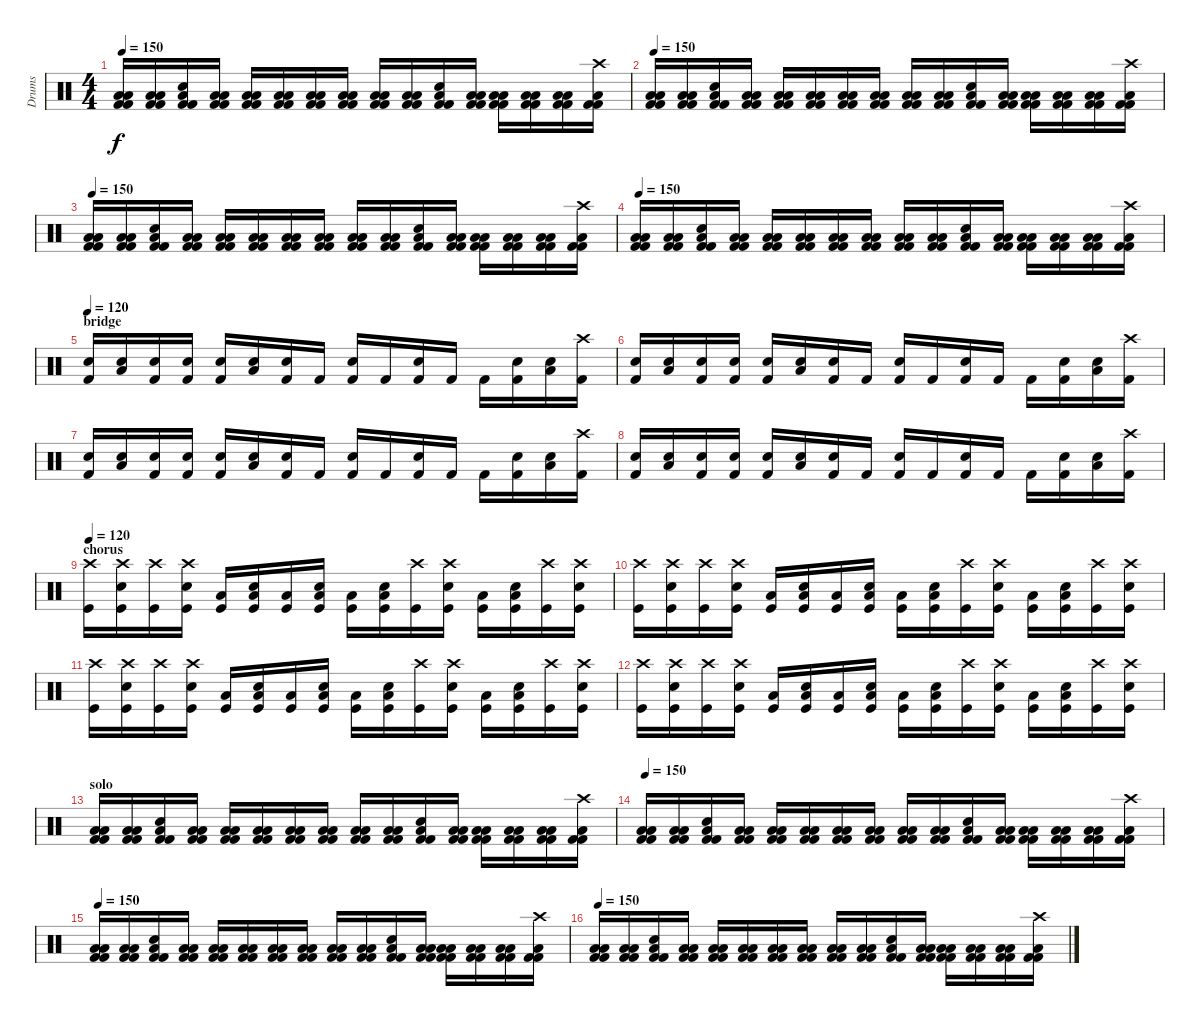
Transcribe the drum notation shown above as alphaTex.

\track ("Drums" "Drums") {instrument percussion}
\staff {score}
\articulation defaults
\ts (4 4)
\tempo 150
\clef neutral
\ks c
("Kick (hit) 2" "Kick (hit) 2" "Low Tom (hit)" "Low Tom (hit)").16{dy f} ("Kick (hit) 2" "Kick (hit) 2" "Low Tom (hit)" "Low Tom (hit)").16 ("Kick (hit) 2" "Kick (hit) 2" "Snare (hit) 2" "Low Tom (hit)").16 ("Kick (hit) 2" "Kick (hit) 2" "Low Tom (hit)" "Low Tom (hit)").16 ("Kick (hit) 2" "Kick (hit) 2" "Low Tom (hit)" "Low Tom (hit)").16 ("Kick (hit) 2" "Kick (hit) 2" "Low Tom (hit)" "Low Tom (hit)").16 ("Kick (hit) 2" "Kick (hit) 2" "Low Tom (hit)" "Low Tom (hit)").16 ("Kick (hit) 2" "Kick (hit) 2" "Low Tom (hit)" "Low Tom (hit)").16 ("Kick (hit) 2" "Kick (hit) 2" "Low Tom (hit)" "Low Tom (hit)").16 ("Kick (hit) 2" "Kick (hit) 2" "Low Tom (hit)" "Low Tom (hit)").16 ("Kick (hit) 2" "Kick (hit) 2" "Snare (hit) 2" "Low Tom (hit)").16 ("Kick (hit) 2" "Kick (hit) 2" "Low Tom (hit)" "Low Tom (hit)").16 ("Kick (hit) 2" "Kick (hit) 2" "Low Tom (hit)" "Low Tom (hit)").16 ("Kick (hit) 2" "Kick (hit) 2" "Low Tom (hit)" "Low Tom (hit)").16 ("Kick (hit) 2" "Kick (hit) 2" "Low Tom (hit)" "Low Tom (hit)").16 ("Kick (hit) 2" "Kick (hit) 2" "Crash high (hit)" "Low Tom (hit)").16 |
\tempo 150
("Kick (hit) 2" "Kick (hit) 2" "Low Tom (hit)" "Low Tom (hit)").16 ("Kick (hit) 2" "Kick (hit) 2" "Low Tom (hit)" "Low Tom (hit)").16 ("Kick (hit) 2" "Kick (hit) 2" "Snare (hit) 2" "Low Tom (hit)").16 ("Kick (hit) 2" "Kick (hit) 2" "Low Tom (hit)" "Low Tom (hit)").16 ("Kick (hit) 2" "Kick (hit) 2" "Low Tom (hit)" "Low Tom (hit)").16 ("Kick (hit) 2" "Kick (hit) 2" "Low Tom (hit)" "Low Tom (hit)").16 ("Kick (hit) 2" "Kick (hit) 2" "Low Tom (hit)" "Low Tom (hit)").16 ("Kick (hit) 2" "Kick (hit) 2" "Low Tom (hit)" "Low Tom (hit)").16 ("Kick (hit) 2" "Kick (hit) 2" "Low Tom (hit)" "Low Tom (hit)").16 ("Kick (hit) 2" "Kick (hit) 2" "Low Tom (hit)" "Low Tom (hit)").16 ("Kick (hit) 2" "Kick (hit) 2" "Snare (hit) 2" "Low Tom (hit)").16 ("Kick (hit) 2" "Kick (hit) 2" "Low Tom (hit)" "Low Tom (hit)").16 ("Kick (hit) 2" "Kick (hit) 2" "Low Tom (hit)" "Low Tom (hit)").16 ("Kick (hit) 2" "Kick (hit) 2" "Low Tom (hit)" "Low Tom (hit)").16 ("Kick (hit) 2" "Kick (hit) 2" "Low Tom (hit)" "Low Tom (hit)").16 ("Kick (hit) 2" "Kick (hit) 2" "Crash high (hit)" "Low Tom (hit)").16 |
\tempo 150
("Kick (hit) 2" "Kick (hit) 2" "Low Tom (hit)" "Low Tom (hit)").16 ("Kick (hit) 2" "Kick (hit) 2" "Low Tom (hit)" "Low Tom (hit)").16 ("Kick (hit) 2" "Kick (hit) 2" "Snare (hit) 2" "Low Tom (hit)").16 ("Kick (hit) 2" "Kick (hit) 2" "Low Tom (hit)" "Low Tom (hit)").16 ("Kick (hit) 2" "Kick (hit) 2" "Low Tom (hit)" "Low Tom (hit)").16 ("Kick (hit) 2" "Kick (hit) 2" "Low Tom (hit)" "Low Tom (hit)").16 ("Kick (hit) 2" "Kick (hit) 2" "Low Tom (hit)" "Low Tom (hit)").16 ("Kick (hit) 2" "Kick (hit) 2" "Low Tom (hit)" "Low Tom (hit)").16 ("Kick (hit) 2" "Kick (hit) 2" "Low Tom (hit)" "Low Tom (hit)").16 ("Kick (hit) 2" "Kick (hit) 2" "Low Tom (hit)" "Low Tom (hit)").16 ("Kick (hit) 2" "Kick (hit) 2" "Snare (hit) 2" "Low Tom (hit)").16 ("Kick (hit) 2" "Kick (hit) 2" "Low Tom (hit)" "Low Tom (hit)").16 ("Kick (hit) 2" "Kick (hit) 2" "Low Tom (hit)" "Low Tom (hit)").16 ("Kick (hit) 2" "Kick (hit) 2" "Low Tom (hit)" "Low Tom (hit)").16 ("Kick (hit) 2" "Kick (hit) 2" "Low Tom (hit)" "Low Tom (hit)").16 ("Kick (hit) 2" "Kick (hit) 2" "Crash high (hit)" "Low Tom (hit)").16 |
\tempo 150
("Kick (hit) 2" "Kick (hit) 2" "Low Tom (hit)" "Low Tom (hit)").16 ("Kick (hit) 2" "Kick (hit) 2" "Low Tom (hit)" "Low Tom (hit)").16 ("Kick (hit) 2" "Kick (hit) 2" "Snare (hit) 2" "Low Tom (hit)").16 ("Kick (hit) 2" "Kick (hit) 2" "Low Tom (hit)" "Low Tom (hit)").16 ("Kick (hit) 2" "Kick (hit) 2" "Low Tom (hit)" "Low Tom (hit)").16 ("Kick (hit) 2" "Kick (hit) 2" "Low Tom (hit)" "Low Tom (hit)").16 ("Kick (hit) 2" "Kick (hit) 2" "Low Tom (hit)" "Low Tom (hit)").16 ("Kick (hit) 2" "Kick (hit) 2" "Low Tom (hit)" "Low Tom (hit)").16 ("Kick (hit) 2" "Kick (hit) 2" "Low Tom (hit)" "Low Tom (hit)").16 ("Kick (hit) 2" "Kick (hit) 2" "Low Tom (hit)" "Low Tom (hit)").16 ("Kick (hit) 2" "Kick (hit) 2" "Snare (hit) 2" "Low Tom (hit)").16 ("Kick (hit) 2" "Kick (hit) 2" "Low Tom (hit)" "Low Tom (hit)").16 ("Kick (hit) 2" "Kick (hit) 2" "Low Tom (hit)" "Low Tom (hit)").16 ("Kick (hit) 2" "Kick (hit) 2" "Low Tom (hit)" "Low Tom (hit)").16 ("Kick (hit) 2" "Kick (hit) 2" "Low Tom (hit)" "Low Tom (hit)").16 ("Kick (hit) 2" "Kick (hit) 2" "Crash high (hit)" "Low Tom (hit)").16 |
\section ("" "bridge")
\tempo 120
("Snare (hit) 2" "Kick (hit) 2").16 ("Snare (hit) 2" "Low Tom (hit)").16 ("Snare (hit) 2" "Kick (hit) 2").16 ("Snare (hit) 2" "Kick (hit) 2").16 ("Snare (hit) 2" "Kick (hit) 2").16 ("Snare (hit) 2" "Low Tom (hit)").16 ("Snare (hit) 2" "Kick (hit) 2").16 "Kick (hit) 2".16 ("Kick (hit) 2" "Snare (hit) 2").16 "Kick (hit) 2".16 ("Kick (hit) 2" "Snare (hit) 2").16 "Kick (hit) 2".16 "Kick (hit) 2".16 ("Kick (hit) 2" "Snare (hit) 2").16 ("Snare (hit) 2" "Low Tom (hit)").16 ("Kick (hit) 2" "Crash high (hit)").16 |
("Snare (hit) 2" "Kick (hit) 2").16 ("Snare (hit) 2" "Low Tom (hit)").16 ("Snare (hit) 2" "Kick (hit) 2").16 ("Snare (hit) 2" "Kick (hit) 2").16 ("Snare (hit) 2" "Kick (hit) 2").16 ("Snare (hit) 2" "Low Tom (hit)").16 ("Snare (hit) 2" "Kick (hit) 2").16 "Kick (hit) 2".16 ("Kick (hit) 2" "Snare (hit) 2").16 "Kick (hit) 2".16 ("Kick (hit) 2" "Snare (hit) 2").16 "Kick (hit) 2".16 "Kick (hit) 2".16 ("Kick (hit) 2" "Snare (hit) 2").16 ("Snare (hit) 2" "Low Tom (hit)").16 ("Kick (hit) 2" "Crash high (hit)").16 |
("Snare (hit) 2" "Kick (hit) 2").16 ("Snare (hit) 2" "Low Tom (hit)").16 ("Snare (hit) 2" "Kick (hit) 2").16 ("Snare (hit) 2" "Kick (hit) 2").16 ("Snare (hit) 2" "Kick (hit) 2").16 ("Snare (hit) 2" "Low Tom (hit)").16 ("Snare (hit) 2" "Kick (hit) 2").16 "Kick (hit) 2".16 ("Kick (hit) 2" "Snare (hit) 2").16 "Kick (hit) 2".16 ("Kick (hit) 2" "Snare (hit) 2").16 "Kick (hit) 2".16 "Kick (hit) 2".16 ("Kick (hit) 2" "Snare (hit) 2").16 ("Snare (hit) 2" "Low Tom (hit)").16 ("Kick (hit) 2" "Crash high (hit)").16 |
("Snare (hit) 2" "Kick (hit) 2").16 ("Snare (hit) 2" "Low Tom (hit)").16 ("Snare (hit) 2" "Kick (hit) 2").16 ("Snare (hit) 2" "Kick (hit) 2").16 ("Snare (hit) 2" "Kick (hit) 2").16 ("Snare (hit) 2" "Low Tom (hit)").16 ("Snare (hit) 2" "Kick (hit) 2").16 "Kick (hit) 2".16 ("Kick (hit) 2" "Snare (hit) 2").16 "Kick (hit) 2".16 ("Kick (hit) 2" "Snare (hit) 2").16 "Kick (hit) 2".16 "Kick (hit) 2".16 ("Kick (hit) 2" "Snare (hit) 2").16 ("Snare (hit) 2" "Low Tom (hit)").16 ("Kick (hit) 2" "Crash high (hit)").16 |
\section ("" "chorus")
\tempo 120
("Kick (hit)" "Crash high (hit)").16 ("Kick (hit)" "Snare (hit) 2" "Crash high (hit)").16 ("Kick (hit)" "Crash high (hit)").16 ("Kick (hit)" "Snare (hit) 2" "Crash high (hit)").16 ("Kick (hit)" "Low Tom (hit)").16 ("Kick (hit)" "Snare (hit) 2" "Low Tom (hit)").16 ("Kick (hit)" "Low Tom (hit)").16 ("Kick (hit)" "Snare (hit) 2" "Low Tom (hit)").16 ("Kick (hit)" "Low Tom (hit)").16 ("Kick (hit)" "Snare (hit) 2" "Low Tom (hit)").16 ("Kick (hit)" "Crash high (hit)").16 ("Kick (hit)" "Snare (hit) 2" "Crash high (hit)").16 ("Kick (hit)" "Low Tom (hit)").16 ("Kick (hit)" "Snare (hit) 2" "Low Tom (hit)").16 ("Kick (hit)" "Crash high (hit)").16 ("Kick (hit)" "Snare (hit) 2" "Crash high (hit)").16 |
("Kick (hit)" "Crash high (hit)").16 ("Kick (hit)" "Snare (hit) 2" "Crash high (hit)").16 ("Kick (hit)" "Crash high (hit)").16 ("Kick (hit)" "Snare (hit) 2" "Crash high (hit)").16 ("Kick (hit)" "Low Tom (hit)").16 ("Kick (hit)" "Snare (hit) 2" "Low Tom (hit)").16 ("Kick (hit)" "Low Tom (hit)").16 ("Kick (hit)" "Snare (hit) 2" "Low Tom (hit)").16 ("Kick (hit)" "Low Tom (hit)").16 ("Kick (hit)" "Snare (hit) 2" "Low Tom (hit)").16 ("Kick (hit)" "Crash high (hit)").16 ("Kick (hit)" "Snare (hit) 2" "Crash high (hit)").16 ("Kick (hit)" "Low Tom (hit)").16 ("Kick (hit)" "Snare (hit) 2" "Low Tom (hit)").16 ("Kick (hit)" "Crash high (hit)").16 ("Kick (hit)" "Snare (hit) 2" "Crash high (hit)").16 |
("Kick (hit)" "Crash high (hit)").16 ("Kick (hit)" "Snare (hit) 2" "Crash high (hit)").16 ("Kick (hit)" "Crash high (hit)").16 ("Kick (hit)" "Snare (hit) 2" "Crash high (hit)").16 ("Kick (hit)" "Low Tom (hit)").16 ("Kick (hit)" "Snare (hit) 2" "Low Tom (hit)").16 ("Kick (hit)" "Low Tom (hit)").16 ("Kick (hit)" "Snare (hit) 2" "Low Tom (hit)").16 ("Kick (hit)" "Low Tom (hit)").16 ("Kick (hit)" "Snare (hit) 2" "Low Tom (hit)").16 ("Kick (hit)" "Crash high (hit)").16 ("Kick (hit)" "Snare (hit) 2" "Crash high (hit)").16 ("Kick (hit)" "Low Tom (hit)").16 ("Kick (hit)" "Snare (hit) 2" "Low Tom (hit)").16 ("Kick (hit)" "Crash high (hit)").16 ("Kick (hit)" "Snare (hit) 2" "Crash high (hit)").16 |
("Kick (hit)" "Crash high (hit)").16 ("Kick (hit)" "Snare (hit) 2" "Crash high (hit)").16 ("Kick (hit)" "Crash high (hit)").16 ("Kick (hit)" "Snare (hit) 2" "Crash high (hit)").16 ("Kick (hit)" "Low Tom (hit)").16 ("Kick (hit)" "Snare (hit) 2" "Low Tom (hit)").16 ("Kick (hit)" "Low Tom (hit)").16 ("Kick (hit)" "Snare (hit) 2" "Low Tom (hit)").16 ("Kick (hit)" "Low Tom (hit)").16 ("Kick (hit)" "Snare (hit) 2" "Low Tom (hit)").16 ("Kick (hit)" "Crash high (hit)").16 ("Kick (hit)" "Snare (hit) 2" "Crash high (hit)").16 ("Kick (hit)" "Low Tom (hit)").16 ("Kick (hit)" "Snare (hit) 2" "Low Tom (hit)").16 ("Kick (hit)" "Crash high (hit)").16 ("Kick (hit)" "Snare (hit) 2" "Crash high (hit)").16 |
\section ("" "solo")
("Kick (hit) 2" "Kick (hit) 2" "Low Tom (hit)" "Low Tom (hit)").16 ("Kick (hit) 2" "Kick (hit) 2" "Low Tom (hit)" "Low Tom (hit)").16 ("Kick (hit) 2" "Kick (hit) 2" "Snare (hit) 2" "Low Tom (hit)").16 ("Kick (hit) 2" "Kick (hit) 2" "Low Tom (hit)" "Low Tom (hit)").16 ("Kick (hit) 2" "Kick (hit) 2" "Low Tom (hit)" "Low Tom (hit)").16 ("Kick (hit) 2" "Kick (hit) 2" "Low Tom (hit)" "Low Tom (hit)").16 ("Kick (hit) 2" "Kick (hit) 2" "Low Tom (hit)" "Low Tom (hit)").16 ("Kick (hit) 2" "Kick (hit) 2" "Low Tom (hit)" "Low Tom (hit)").16 ("Kick (hit) 2" "Kick (hit) 2" "Low Tom (hit)" "Low Tom (hit)").16 ("Kick (hit) 2" "Kick (hit) 2" "Low Tom (hit)" "Low Tom (hit)").16 ("Kick (hit) 2" "Kick (hit) 2" "Snare (hit) 2" "Low Tom (hit)").16 ("Kick (hit) 2" "Kick (hit) 2" "Low Tom (hit)" "Low Tom (hit)").16 ("Kick (hit) 2" "Kick (hit) 2" "Low Tom (hit)" "Low Tom (hit)").16 ("Kick (hit) 2" "Kick (hit) 2" "Low Tom (hit)" "Low Tom (hit)").16 ("Kick (hit) 2" "Kick (hit) 2" "Low Tom (hit)" "Low Tom (hit)").16 ("Kick (hit) 2" "Kick (hit) 2" "Crash high (hit)" "Low Tom (hit)").16 |
\tempo 150
("Kick (hit) 2" "Kick (hit) 2" "Low Tom (hit)" "Low Tom (hit)").16 ("Kick (hit) 2" "Kick (hit) 2" "Low Tom (hit)" "Low Tom (hit)").16 ("Kick (hit) 2" "Kick (hit) 2" "Snare (hit) 2" "Low Tom (hit)").16 ("Kick (hit) 2" "Kick (hit) 2" "Low Tom (hit)" "Low Tom (hit)").16 ("Kick (hit) 2" "Kick (hit) 2" "Low Tom (hit)" "Low Tom (hit)").16 ("Kick (hit) 2" "Kick (hit) 2" "Low Tom (hit)" "Low Tom (hit)").16 ("Kick (hit) 2" "Kick (hit) 2" "Low Tom (hit)" "Low Tom (hit)").16 ("Kick (hit) 2" "Kick (hit) 2" "Low Tom (hit)" "Low Tom (hit)").16 ("Kick (hit) 2" "Kick (hit) 2" "Low Tom (hit)" "Low Tom (hit)").16 ("Kick (hit) 2" "Kick (hit) 2" "Low Tom (hit)" "Low Tom (hit)").16 ("Kick (hit) 2" "Kick (hit) 2" "Snare (hit) 2" "Low Tom (hit)").16 ("Kick (hit) 2" "Kick (hit) 2" "Low Tom (hit)" "Low Tom (hit)").16 ("Kick (hit) 2" "Kick (hit) 2" "Low Tom (hit)" "Low Tom (hit)").16 ("Kick (hit) 2" "Kick (hit) 2" "Low Tom (hit)" "Low Tom (hit)").16 ("Kick (hit) 2" "Kick (hit) 2" "Low Tom (hit)" "Low Tom (hit)").16 ("Kick (hit) 2" "Kick (hit) 2" "Crash high (hit)" "Low Tom (hit)").16 |
\tempo 150
("Kick (hit) 2" "Kick (hit) 2" "Low Tom (hit)" "Low Tom (hit)").16 ("Kick (hit) 2" "Kick (hit) 2" "Low Tom (hit)" "Low Tom (hit)").16 ("Kick (hit) 2" "Kick (hit) 2" "Snare (hit) 2" "Low Tom (hit)").16 ("Kick (hit) 2" "Kick (hit) 2" "Low Tom (hit)" "Low Tom (hit)").16 ("Kick (hit) 2" "Kick (hit) 2" "Low Tom (hit)" "Low Tom (hit)").16 ("Kick (hit) 2" "Kick (hit) 2" "Low Tom (hit)" "Low Tom (hit)").16 ("Kick (hit) 2" "Kick (hit) 2" "Low Tom (hit)" "Low Tom (hit)").16 ("Kick (hit) 2" "Kick (hit) 2" "Low Tom (hit)" "Low Tom (hit)").16 ("Kick (hit) 2" "Kick (hit) 2" "Low Tom (hit)" "Low Tom (hit)").16 ("Kick (hit) 2" "Kick (hit) 2" "Low Tom (hit)" "Low Tom (hit)").16 ("Kick (hit) 2" "Kick (hit) 2" "Snare (hit) 2" "Low Tom (hit)").16 ("Kick (hit) 2" "Kick (hit) 2" "Low Tom (hit)" "Low Tom (hit)").16 ("Kick (hit) 2" "Kick (hit) 2" "Low Tom (hit)" "Low Tom (hit)").16 ("Kick (hit) 2" "Kick (hit) 2" "Low Tom (hit)" "Low Tom (hit)").16 ("Kick (hit) 2" "Kick (hit) 2" "Low Tom (hit)" "Low Tom (hit)").16 ("Kick (hit) 2" "Kick (hit) 2" "Crash high (hit)" "Low Tom (hit)").16 |
\tempo 150
("Kick (hit) 2" "Kick (hit) 2" "Low Tom (hit)" "Low Tom (hit)").16 ("Kick (hit) 2" "Kick (hit) 2" "Low Tom (hit)" "Low Tom (hit)").16 ("Kick (hit) 2" "Kick (hit) 2" "Snare (hit) 2" "Low Tom (hit)").16 ("Kick (hit) 2" "Kick (hit) 2" "Low Tom (hit)" "Low Tom (hit)").16 ("Kick (hit) 2" "Kick (hit) 2" "Low Tom (hit)" "Low Tom (hit)").16 ("Kick (hit) 2" "Kick (hit) 2" "Low Tom (hit)" "Low Tom (hit)").16 ("Kick (hit) 2" "Kick (hit) 2" "Low Tom (hit)" "Low Tom (hit)").16 ("Kick (hit) 2" "Kick (hit) 2" "Low Tom (hit)" "Low Tom (hit)").16 ("Kick (hit) 2" "Kick (hit) 2" "Low Tom (hit)" "Low Tom (hit)").16 ("Kick (hit) 2" "Kick (hit) 2" "Low Tom (hit)" "Low Tom (hit)").16 ("Kick (hit) 2" "Kick (hit) 2" "Snare (hit) 2" "Low Tom (hit)").16 ("Kick (hit) 2" "Kick (hit) 2" "Low Tom (hit)" "Low Tom (hit)").16 ("Kick (hit) 2" "Kick (hit) 2" "Low Tom (hit)" "Low Tom (hit)").16 ("Kick (hit) 2" "Kick (hit) 2" "Low Tom (hit)" "Low Tom (hit)").16 ("Kick (hit) 2" "Kick (hit) 2" "Low Tom (hit)" "Low Tom (hit)").16 ("Kick (hit) 2" "Kick (hit) 2" "Crash high (hit)" "Low Tom (hit)").16
